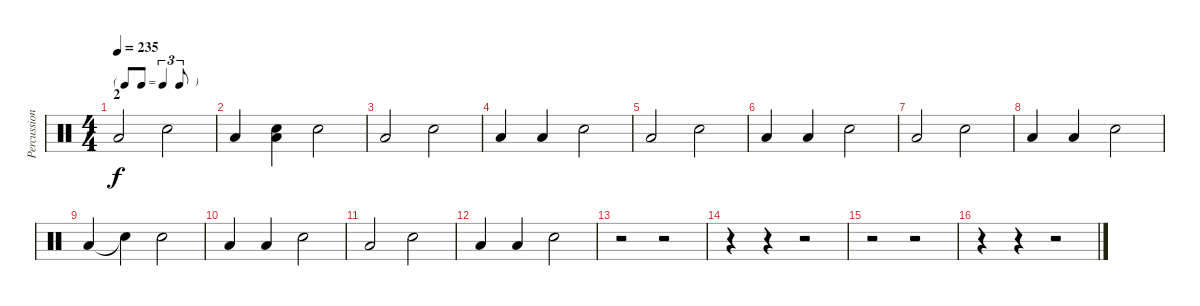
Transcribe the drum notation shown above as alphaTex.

\track ("Percussions" "Percussion") {instrument percussion}
\staff
\articulation defaults
\ts (4 4)
\tf triplet8th
\section ("" "2")
\tempo 235
\clef neutral
\ks c "Low Tom (hit)".2{dy f} "Snare (hit) 2".2
|
"Low Tom (hit)".4 ("Snare (hit)" "Low Tom (hit)").4 "Snare (hit) 2".2 |
"Low Tom (hit)".2 "Snare (hit) 2".2 |
"Low Tom (hit)".4 "Low Tom (hit)".4 "Snare (hit) 2".2 |
"Low Tom (hit)".2 "Snare (hit) 2".2 |
"Low Tom (hit)".4 "Low Tom (hit)".4 "Snare (hit) 2".2 |
"Low Tom (hit)".2 "Snare (hit) 2".2 |
"Low Tom (hit)".4 "Low Tom (hit)".4 "Snare (hit) 2".2 |
"Low Tom (hit)".4 "Snare (hit)"{t}.4 "Snare (hit) 2".2 |
"Low Tom (hit)".4 "Low Tom (hit)".4 "Snare (hit) 2".2 |
"Low Tom (hit)".2 "Snare (hit) 2".2 |
"Low Tom (hit)".4 "Low Tom (hit)".4 "Snare (hit) 2".2 |
r.2 r.2 |
r.4 r.4 r.2 |
r.2 r.2 |
r.4 r.4 r.2
